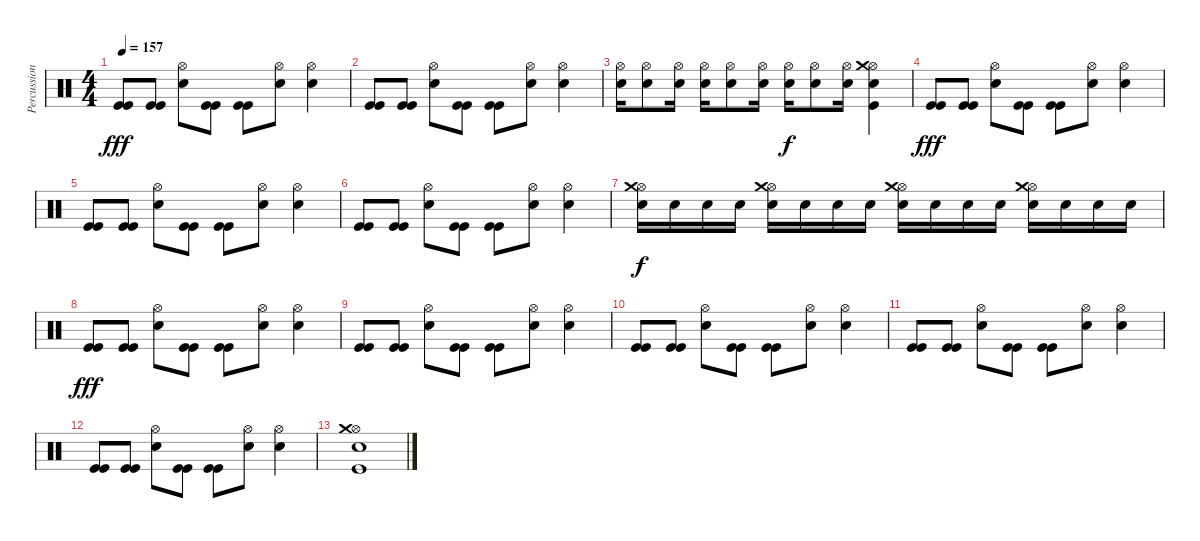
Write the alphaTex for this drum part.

\track ("Percussions" "Percussion") {instrument percussion}
\staff {score}
\articulation defaults
\ts (4 4)
\tempo 157
\clef neutral
\ks c
("Kick (hit)" "Kick (hit)").8{dy fff} ("Kick (hit)" "Kick (hit)").8 ("Snare (hit) 2" "Hi-Hat (open)").8 ("Kick (hit)" "Kick (hit)").8 ("Kick (hit)" "Kick (hit)").8 ("Snare (hit) 2" "Hi-Hat (open)").8 ("Snare (hit) 2" "Hi-Hat (open)").4 |
("Kick (hit)" "Kick (hit)").8 ("Kick (hit)" "Kick (hit)").8 ("Snare (hit) 2" "Hi-Hat (open)").8 ("Kick (hit)" "Kick (hit)").8 ("Kick (hit)" "Kick (hit)").8 ("Snare (hit) 2" "Hi-Hat (open)").8 ("Snare (hit) 2" "Hi-Hat (open)").4 |
("Snare (hit) 2" "Hi-Hat (open)").16 ("Snare (hit) 2" "Hi-Hat (open)").8 ("Snare (hit) 2" "Hi-Hat (open)").16 ("Snare (hit) 2" "Hi-Hat (open)").16 ("Snare (hit) 2" "Hi-Hat (open)").8 ("Snare (hit) 2" "Hi-Hat (open)").16 ("Snare (hit) 2" "Hi-Hat (open)").16{dy f} ("Snare (hit) 2" "Hi-Hat (open)").8 ("Snare (hit) 2" "Hi-Hat (open)").16 ("Snare (hit) 2" "Hi-Hat (open)" "Crash medium (hit)" "Kick (hit)").4 |
("Kick (hit)" "Kick (hit)").8{dy fff} ("Kick (hit)" "Kick (hit)").8 ("Snare (hit) 2" "Hi-Hat (open)").8 ("Kick (hit)" "Kick (hit)").8 ("Kick (hit)" "Kick (hit)").8 ("Snare (hit) 2" "Hi-Hat (open)").8 ("Snare (hit) 2" "Hi-Hat (open)").4 |
("Kick (hit)" "Kick (hit)").8 ("Kick (hit)" "Kick (hit)").8 ("Snare (hit) 2" "Hi-Hat (open)").8 ("Kick (hit)" "Kick (hit)").8 ("Kick (hit)" "Kick (hit)").8 ("Snare (hit) 2" "Hi-Hat (open)").8 ("Snare (hit) 2" "Hi-Hat (open)").4 |
("Kick (hit)" "Kick (hit)").8 ("Kick (hit)" "Kick (hit)").8 ("Snare (hit) 2" "Hi-Hat (open)").8 ("Kick (hit)" "Kick (hit)").8 ("Kick (hit)" "Kick (hit)").8 ("Snare (hit) 2" "Hi-Hat (open)").8 ("Snare (hit) 2" "Hi-Hat (open)").4 |
("Snare (hit) 2" "Hi-Hat (open)" "Crash medium (hit)").16{dy f} "Snare (hit) 2".16 "Snare (hit) 2".16 "Snare (hit) 2".16 ("Snare (hit) 2" "Hi-Hat (open)" "Crash medium (hit)").16 "Snare (hit) 2".16 "Snare (hit) 2".16 "Snare (hit) 2".16 ("Snare (hit) 2" "Hi-Hat (open)" "Crash medium (hit)").16 "Snare (hit) 2".16 "Snare (hit) 2".16 "Snare (hit) 2".16 ("Snare (hit) 2" "Hi-Hat (open)" "Crash medium (hit)").16 "Snare (hit) 2".16 "Snare (hit) 2".16 "Snare (hit) 2".16 |
("Kick (hit)" "Kick (hit)").8{dy fff} ("Kick (hit)" "Kick (hit)").8 ("Snare (hit) 2" "Hi-Hat (open)").8 ("Kick (hit)" "Kick (hit)").8 ("Kick (hit)" "Kick (hit)").8 ("Snare (hit) 2" "Hi-Hat (open)").8 ("Snare (hit) 2" "Hi-Hat (open)").4 |
("Kick (hit)" "Kick (hit)").8 ("Kick (hit)" "Kick (hit)").8 ("Snare (hit) 2" "Hi-Hat (open)").8 ("Kick (hit)" "Kick (hit)").8 ("Kick (hit)" "Kick (hit)").8 ("Snare (hit) 2" "Hi-Hat (open)").8 ("Snare (hit) 2" "Hi-Hat (open)").4 |
("Kick (hit)" "Kick (hit)").8 ("Kick (hit)" "Kick (hit)").8 ("Snare (hit) 2" "Hi-Hat (open)").8 ("Kick (hit)" "Kick (hit)").8 ("Kick (hit)" "Kick (hit)").8 ("Snare (hit) 2" "Hi-Hat (open)").8 ("Snare (hit) 2" "Hi-Hat (open)").4 |
("Kick (hit)" "Kick (hit)").8 ("Kick (hit)" "Kick (hit)").8 ("Snare (hit) 2" "Hi-Hat (open)").8 ("Kick (hit)" "Kick (hit)").8 ("Kick (hit)" "Kick (hit)").8 ("Snare (hit) 2" "Hi-Hat (open)").8 ("Snare (hit) 2" "Hi-Hat (open)").4 |
("Kick (hit)" "Kick (hit)").8 ("Kick (hit)" "Kick (hit)").8 ("Snare (hit) 2" "Hi-Hat (open)").8 ("Kick (hit)" "Kick (hit)").8 ("Kick (hit)" "Kick (hit)").8 ("Snare (hit) 2" "Hi-Hat (open)").8 ("Snare (hit) 2" "Hi-Hat (open)").4 |
("Snare (hit) 2" "Hi-Hat (open)" "Crash medium (hit)" "Kick (hit)").1
